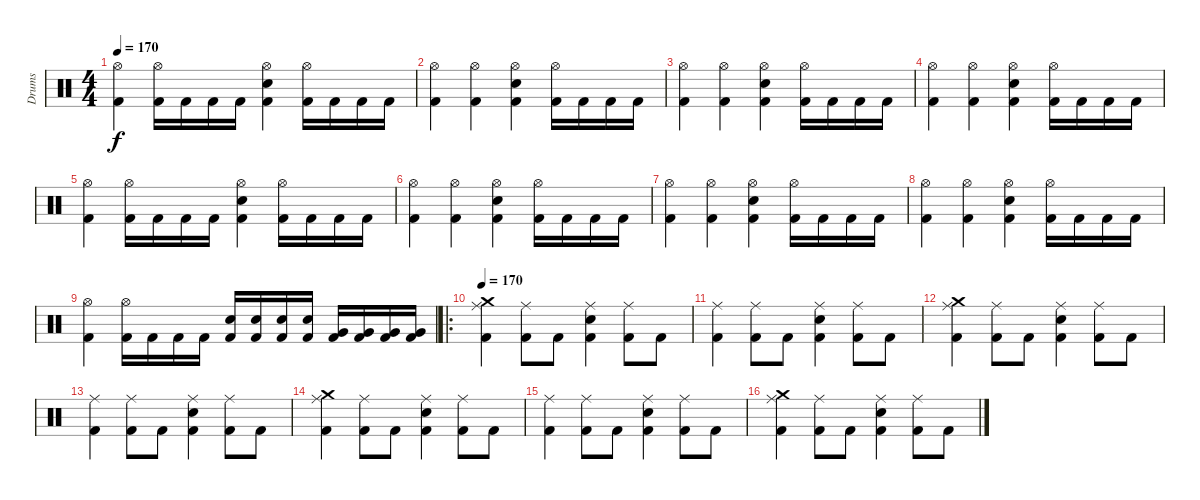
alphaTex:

\track ("Drums" "Drums") {instrument percussion}
\staff {score}
\articulation defaults
\ts (4 4)
\tempo 170
\clef neutral
\ks c
("Hi-Hat (open)" "Kick (hit) 2").4{dy f} ("Hi-Hat (open)" "Kick (hit) 2").16 "Kick (hit) 2".16 "Kick (hit) 2".16 "Kick (hit) 2".16 ("Hi-Hat (open)" "Snare (hit) 2" "Kick (hit) 2").4 ("Hi-Hat (open)" "Kick (hit) 2").16 "Kick (hit) 2".16 "Kick (hit) 2".16 "Kick (hit) 2".16 |
("Hi-Hat (open)" "Kick (hit) 2").4 ("Hi-Hat (open)" "Kick (hit) 2").4 ("Hi-Hat (open)" "Snare (hit) 2" "Kick (hit) 2").4 ("Hi-Hat (open)" "Kick (hit) 2").16 "Kick (hit) 2".16 "Kick (hit) 2".16 "Kick (hit) 2".16 |
("Hi-Hat (open)" "Kick (hit) 2").4 ("Hi-Hat (open)" "Kick (hit) 2").4 ("Hi-Hat (open)" "Snare (hit) 2" "Kick (hit) 2").4 ("Hi-Hat (open)" "Kick (hit) 2").16 "Kick (hit) 2".16 "Kick (hit) 2".16 "Kick (hit) 2".16 |
("Hi-Hat (open)" "Kick (hit) 2").4 ("Hi-Hat (open)" "Kick (hit) 2").4 ("Hi-Hat (open)" "Snare (hit) 2" "Kick (hit) 2").4 ("Hi-Hat (open)" "Kick (hit) 2").16 "Kick (hit) 2".16 "Kick (hit) 2".16 "Kick (hit) 2".16 |
("Hi-Hat (open)" "Kick (hit) 2").4 ("Hi-Hat (open)" "Kick (hit) 2").16 "Kick (hit) 2".16 "Kick (hit) 2".16 "Kick (hit) 2".16 ("Hi-Hat (open)" "Snare (hit) 2" "Kick (hit) 2").4 ("Hi-Hat (open)" "Kick (hit) 2").16 "Kick (hit) 2".16 "Kick (hit) 2".16 "Kick (hit) 2".16 |
("Hi-Hat (open)" "Kick (hit) 2").4 ("Hi-Hat (open)" "Kick (hit) 2").4 ("Hi-Hat (open)" "Snare (hit) 2" "Kick (hit) 2").4 ("Hi-Hat (open)" "Kick (hit) 2").16 "Kick (hit) 2".16 "Kick (hit) 2".16 "Kick (hit) 2".16 |
("Hi-Hat (open)" "Kick (hit) 2").4 ("Hi-Hat (open)" "Kick (hit) 2").4 ("Hi-Hat (open)" "Snare (hit) 2" "Kick (hit) 2").4 ("Hi-Hat (open)" "Kick (hit) 2").16 "Kick (hit) 2".16 "Kick (hit) 2".16 "Kick (hit) 2".16 |
("Hi-Hat (open)" "Kick (hit) 2").4 ("Hi-Hat (open)" "Kick (hit) 2").4 ("Hi-Hat (open)" "Snare (hit) 2" "Kick (hit) 2").4 ("Hi-Hat (open)" "Kick (hit) 2").16 "Kick (hit) 2".16 "Kick (hit) 2".16 "Kick (hit) 2".16 |
("Hi-Hat (open)" "Kick (hit) 2").4 ("Hi-Hat (open)" "Kick (hit) 2").16 "Kick (hit) 2".16 "Kick (hit) 2".16 "Kick (hit) 2".16 ("Snare (hit) 2" "Kick (hit) 2").16 ("Snare (hit) 2" "Kick (hit) 2").16 ("Snare (hit) 2" "Kick (hit) 2").16 ("Snare (hit) 2" "Kick (hit) 2").16 ("Very Low Tom (hit)" "Kick (hit) 2").16 ("Very Low Tom (hit)" "Kick (hit) 2").16 ("Very Low Tom (hit)" "Kick (hit) 2").16 ("Very Low Tom (hit)" "Kick (hit) 2").16 |
\ro
\tempo 170
("Ride (middle)" "Crash medium (hit)" "Kick (hit) 2").4{volume 16} ("Ride (middle)" "Kick (hit) 2").8 "Kick (hit) 2".8 ("Ride (middle)" "Snare (hit) 2" "Kick (hit) 2").4 ("Ride (middle)" "Kick (hit) 2").8 "Kick (hit) 2".8 |
("Ride (middle)" "Kick (hit) 2").4 ("Ride (middle)" "Kick (hit) 2").8 "Kick (hit) 2".8 ("Ride (middle)" "Snare (hit) 2" "Kick (hit) 2").4 ("Ride (middle)" "Kick (hit) 2").8 "Kick (hit) 2".8 |
("Ride (middle)" "Crash medium (hit)" "Kick (hit) 2").4 ("Ride (middle)" "Kick (hit) 2").8 "Kick (hit) 2".8 ("Ride (middle)" "Snare (hit) 2" "Kick (hit) 2").4 ("Ride (middle)" "Kick (hit) 2").8 "Kick (hit) 2".8 |
("Ride (middle)" "Kick (hit) 2").4 ("Ride (middle)" "Kick (hit) 2").8 "Kick (hit) 2".8 ("Ride (middle)" "Snare (hit) 2" "Kick (hit) 2").4 ("Ride (middle)" "Kick (hit) 2").8 "Kick (hit) 2".8 |
("Ride (middle)" "Crash medium (hit)" "Kick (hit) 2").4 ("Ride (middle)" "Kick (hit) 2").8 "Kick (hit) 2".8 ("Ride (middle)" "Snare (hit) 2" "Kick (hit) 2").4 ("Ride (middle)" "Kick (hit) 2").8 "Kick (hit) 2".8 |
("Ride (middle)" "Kick (hit) 2").4 ("Ride (middle)" "Kick (hit) 2").8 "Kick (hit) 2".8 ("Ride (middle)" "Snare (hit) 2" "Kick (hit) 2").4 ("Ride (middle)" "Kick (hit) 2").8 "Kick (hit) 2".8 |
("Ride (middle)" "Crash medium (hit)" "Kick (hit) 2").4 ("Ride (middle)" "Kick (hit) 2").8 "Kick (hit) 2".8 ("Ride (middle)" "Snare (hit) 2" "Kick (hit) 2").4 ("Ride (middle)" "Kick (hit) 2").8 "Kick (hit) 2".8
